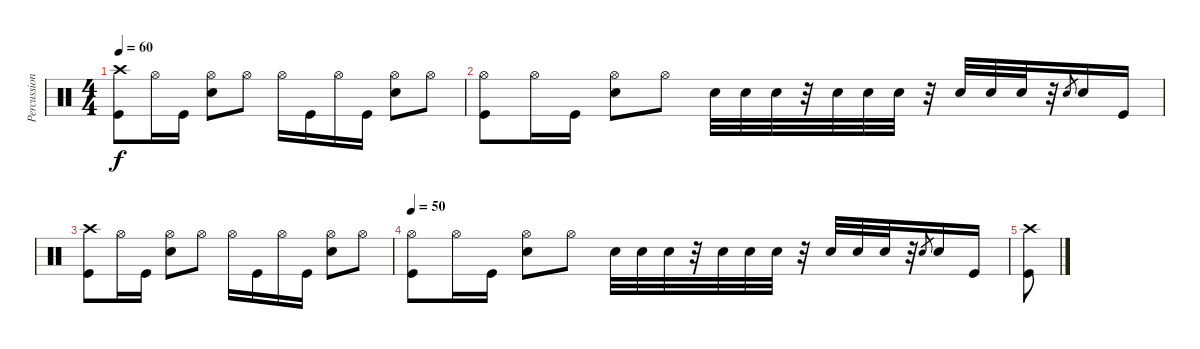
\track ("Percussion" "Percussion") {instrument percussion}
\staff {score}
\articulation defaults
\ts (4 4)
\tempo 60
\clef neutral
\ks c
("Crash high (hit)" "Kick (hit)").8{dy f} "Hi-Hat (open)".16 "Kick (hit)".16 ("Hi-Hat (open)" "Snare (hit) 2").8 "Hi-Hat (open)".8 "Hi-Hat (open)".16 "Kick (hit)".16 "Hi-Hat (open)".16 "Kick (hit)".16 ("Hi-Hat (open)" "Snare (hit) 2").8 "Hi-Hat (open)".8 |
("Hi-Hat (open)" "Kick (hit)").8 "Hi-Hat (open)".16 "Kick (hit)".16 ("Hi-Hat (open)" "Snare (hit) 2").8 "Hi-Hat (open)".8 "Snare (hit) 2".32 "Snare (hit) 2".32 "Snare (hit) 2".32 r.32 "Snare (hit) 2".32 "Snare (hit) 2".32 "Snare (hit) 2".32 r.32 "Snare (hit) 2".32 "Snare (hit) 2".32 "Snare (hit) 2".32 r.32 "Snare (hit) 2".8{gr} "Snare (hit) 2".16 "Kick (hit)".16 |
("Crash high (hit)" "Kick (hit)").8 "Hi-Hat (open)".16 "Kick (hit)".16 ("Hi-Hat (open)" "Snare (hit) 2").8 "Hi-Hat (open)".8 "Hi-Hat (open)".16 "Kick (hit)".16 "Hi-Hat (open)".16 "Kick (hit)".16 ("Hi-Hat (open)" "Snare (hit) 2").8 "Hi-Hat (open)".8 |
\tempo 50
("Hi-Hat (open)" "Kick (hit)").8 "Hi-Hat (open)".16 "Kick (hit)".16 ("Hi-Hat (open)" "Snare (hit) 2").8 "Hi-Hat (open)".8 "Snare (hit) 2".32 "Snare (hit) 2".32 "Snare (hit) 2".32 r.32 "Snare (hit) 2".32 "Snare (hit) 2".32 "Snare (hit) 2".32 r.32 "Snare (hit) 2".32 "Snare (hit) 2".32 "Snare (hit) 2".32 r.32 "Snare (hit) 2".8{gr} "Snare (hit) 2".16 "Kick (hit)".16 |
("Crash high (hit)" "Kick (hit)").8
